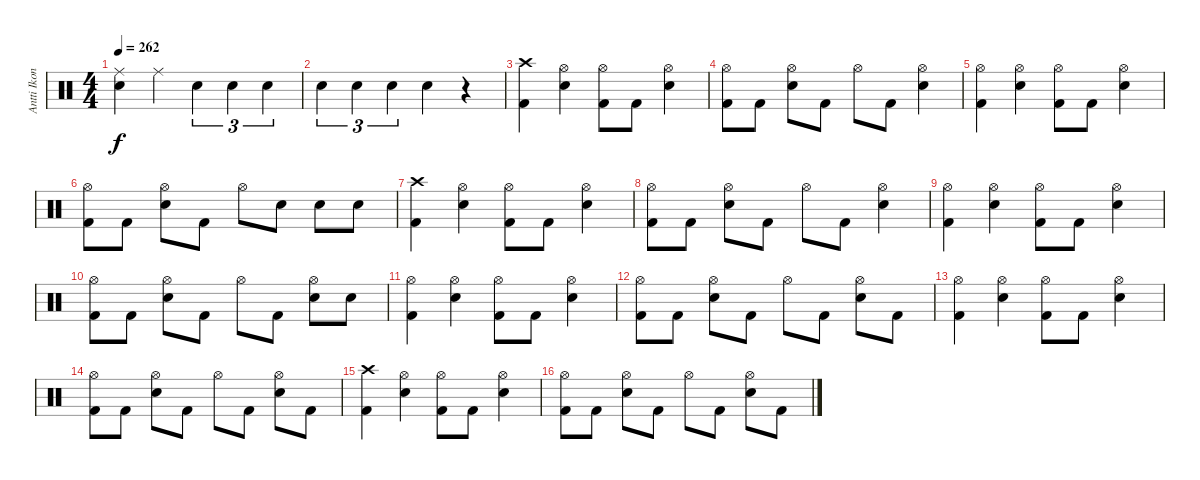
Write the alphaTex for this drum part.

\track ("Antti Ikonen" "Antti Ikon") {instrument percussion}
\staff {score}
\articulation defaults
\ts (4 4)
\tempo 262
\clef neutral
\ks c
("Ride (middle)" "Electric Snare (hit)").4{dy f} "Ride (middle)".4 "Electric Snare (hit)".4{tu (3 2)} "Electric Snare (hit)".4{tu (3 2)} "Electric Snare (hit)".4{tu (3 2)} |
"Electric Snare (hit)".4{tu (3 2)} "Electric Snare (hit)".4{tu (3 2)} "Electric Snare (hit)".4{tu (3 2)} "Electric Snare (hit)".4 r.4 |
("Crash high (hit)" "Kick (hit) 2").4 ("Hi-Hat (open)" "Electric Snare (hit)").4 ("Hi-Hat (open)" "Kick (hit) 2").8 "Kick (hit) 2".8 ("Hi-Hat (open)" "Electric Snare (hit)").4 |
("Hi-Hat (open)" "Kick (hit) 2").8 "Kick (hit) 2".8 ("Hi-Hat (open)" "Electric Snare (hit)").8 "Kick (hit) 2".8 "Hi-Hat (open)".8 "Kick (hit) 2".8 ("Hi-Hat (open)" "Electric Snare (hit)").4 |
("Hi-Hat (open)" "Kick (hit) 2").4 ("Hi-Hat (open)" "Electric Snare (hit)").4 ("Hi-Hat (open)" "Kick (hit) 2").8 "Kick (hit) 2".8 ("Hi-Hat (open)" "Electric Snare (hit)").4 |
("Hi-Hat (open)" "Kick (hit) 2").8 "Kick (hit) 2".8 ("Hi-Hat (open)" "Electric Snare (hit)").8 "Kick (hit) 2".8 "Hi-Hat (open)".8 "Electric Snare (hit)".8 "Electric Snare (hit)".8 "Electric Snare (hit)".8 |
("Crash high (hit)" "Kick (hit) 2").4 ("Hi-Hat (open)" "Electric Snare (hit)").4 ("Hi-Hat (open)" "Kick (hit) 2").8 "Kick (hit) 2".8 ("Hi-Hat (open)" "Electric Snare (hit)").4 |
("Hi-Hat (open)" "Kick (hit) 2").8 "Kick (hit) 2".8 ("Hi-Hat (open)" "Electric Snare (hit)").8 "Kick (hit) 2".8 "Hi-Hat (open)".8 "Kick (hit) 2".8 ("Hi-Hat (open)" "Electric Snare (hit)").4 |
("Hi-Hat (open)" "Kick (hit) 2").4 ("Hi-Hat (open)" "Electric Snare (hit)").4 ("Hi-Hat (open)" "Kick (hit) 2").8 "Kick (hit) 2".8 ("Hi-Hat (open)" "Electric Snare (hit)").4 |
("Hi-Hat (open)" "Kick (hit) 2").8 "Kick (hit) 2".8 ("Hi-Hat (open)" "Electric Snare (hit)").8 "Kick (hit) 2".8 "Hi-Hat (open)".8 "Kick (hit) 2".8 ("Hi-Hat (open)" "Electric Snare (hit)").8 "Electric Snare (hit)".8 |
("Hi-Hat (open)" "Kick (hit) 2").4 ("Hi-Hat (open)" "Electric Snare (hit)").4 ("Hi-Hat (open)" "Kick (hit) 2").8 "Kick (hit) 2".8 ("Hi-Hat (open)" "Electric Snare (hit)").4 |
("Hi-Hat (open)" "Kick (hit) 2").8 "Kick (hit) 2".8 ("Hi-Hat (open)" "Electric Snare (hit)").8 "Kick (hit) 2".8 "Hi-Hat (open)".8 "Kick (hit) 2".8 ("Hi-Hat (open)" "Electric Snare (hit)").8 "Kick (hit) 2".8 |
("Hi-Hat (open)" "Kick (hit) 2").4 ("Hi-Hat (open)" "Electric Snare (hit)").4 ("Hi-Hat (open)" "Kick (hit) 2").8 "Kick (hit) 2".8 ("Hi-Hat (open)" "Electric Snare (hit)").4 |
("Hi-Hat (open)" "Kick (hit) 2").8 "Kick (hit) 2".8 ("Hi-Hat (open)" "Electric Snare (hit)").8 "Kick (hit) 2".8 "Hi-Hat (open)".8 "Kick (hit) 2".8 ("Hi-Hat (open)" "Electric Snare (hit)").8 "Kick (hit) 2".8 |
("Crash high (hit)" "Kick (hit) 2").4 ("Hi-Hat (open)" "Electric Snare (hit)").4 ("Hi-Hat (open)" "Kick (hit) 2").8 "Kick (hit) 2".8 ("Hi-Hat (open)" "Electric Snare (hit)").4 |
("Hi-Hat (open)" "Kick (hit) 2").8 "Kick (hit) 2".8 ("Hi-Hat (open)" "Electric Snare (hit)").8 "Kick (hit) 2".8 "Hi-Hat (open)".8 "Kick (hit) 2".8 ("Hi-Hat (open)" "Electric Snare (hit)").8 "Kick (hit) 2".8
